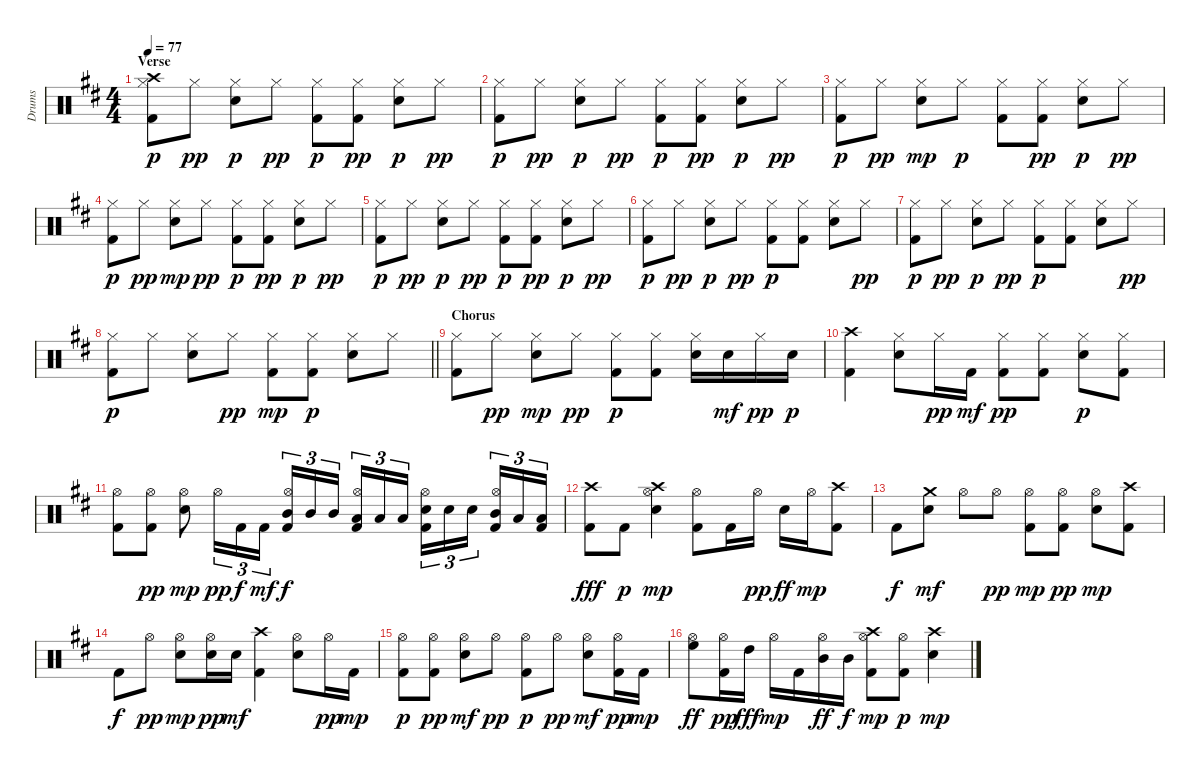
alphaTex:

\track ("Drums" "Drums") {instrument percussion}
\staff {score}
\articulation defaults
\ts (4 4)
\section ("" "Verse")
\tempo 77
\clef neutral
\ks d
("Kick (hit) 2" "Hi-Hat (closed)" "Crash high (hit)").8{dy p} "Hi-Hat (closed)".8{dy pp} ("Snare (hit) 2" "Hi-Hat (closed)").8{dy p} "Hi-Hat (closed)".8{dy pp} ("Kick (hit) 2" "Hi-Hat (closed)").8{dy p} ("Kick (hit) 2" "Hi-Hat (closed)").8{dy pp} ("Snare (hit) 2" "Hi-Hat (closed)").8{dy p} "Hi-Hat (closed)".8{dy pp} |
("Kick (hit) 2" "Hi-Hat (closed)").8{dy p} "Hi-Hat (closed)".8{dy pp} ("Snare (hit) 2" "Hi-Hat (closed)").8{dy p} "Hi-Hat (closed)".8{dy pp} ("Kick (hit) 2" "Hi-Hat (closed)").8{dy p} ("Kick (hit) 2" "Hi-Hat (closed)").8{dy pp} ("Snare (hit) 2" "Hi-Hat (closed)").8{dy p} "Hi-Hat (closed)".8{dy pp} |
("Kick (hit) 2" "Hi-Hat (closed)").8{dy p} "Hi-Hat (closed)".8{dy pp} ("Snare (hit) 2" "Hi-Hat (closed)").8{dy mp} "Hi-Hat (closed)".8{dy p} ("Kick (hit) 2" "Hi-Hat (closed)").8 ("Kick (hit) 2" "Hi-Hat (closed)").8{dy pp} ("Snare (hit) 2" "Hi-Hat (closed)").8{dy p} "Hi-Hat (closed)".8{dy pp} |
("Kick (hit) 2" "Hi-Hat (closed)").8{dy p} "Hi-Hat (closed)".8{dy pp} ("Snare (hit) 2" "Hi-Hat (closed)").8{dy mp} "Hi-Hat (closed)".8{dy pp} ("Kick (hit) 2" "Hi-Hat (closed)").8{dy p} ("Kick (hit) 2" "Hi-Hat (closed)").8{dy pp} ("Snare (hit) 2" "Hi-Hat (closed)").8{dy p} "Hi-Hat (closed)".8{dy pp} |
("Kick (hit) 2" "Hi-Hat (closed)").8{dy p} "Hi-Hat (closed)".8{dy pp} ("Snare (hit) 2" "Hi-Hat (closed)").8{dy p} "Hi-Hat (closed)".8{dy pp} ("Kick (hit) 2" "Hi-Hat (closed)").8{dy p} ("Kick (hit) 2" "Hi-Hat (closed)").8{dy pp} ("Snare (hit) 2" "Hi-Hat (closed)").8{dy p} "Hi-Hat (closed)".8{dy pp} |
("Kick (hit) 2" "Hi-Hat (closed)").8{dy p} "Hi-Hat (closed)".8{dy pp} ("Snare (hit) 2" "Hi-Hat (closed)").8{dy p} "Hi-Hat (closed)".8{dy pp} ("Kick (hit) 2" "Hi-Hat (closed)").8{dy p} ("Kick (hit) 2" "Hi-Hat (closed)").8 ("Snare (hit) 2" "Hi-Hat (closed)").8 "Hi-Hat (closed)".8{dy pp} |
("Kick (hit) 2" "Hi-Hat (closed)").8{dy p} "Hi-Hat (closed)".8{dy pp} ("Snare (hit) 2" "Hi-Hat (closed)").8{dy p} "Hi-Hat (closed)".8{dy pp} ("Kick (hit) 2" "Hi-Hat (closed)").8{dy p} ("Kick (hit) 2" "Hi-Hat (closed)").8 ("Snare (hit) 2" "Hi-Hat (closed)").8 "Hi-Hat (closed)".8{dy pp} |
\barLineRight lightlight
("Kick (hit) 2" "Hi-Hat (closed)").8{dy p} "Hi-Hat (closed)".8 ("Snare (hit) 2" "Hi-Hat (closed)").8 "Hi-Hat (closed)".8{dy pp} ("Kick (hit) 2" "Hi-Hat (closed)").8{dy mp} ("Kick (hit) 2" "Hi-Hat (closed)").8{dy p} ("Snare (hit) 2" "Hi-Hat (closed)").8 "Hi-Hat (closed)".8 |
\section ("" "Chorus")
("Kick (hit) 2" "Hi-Hat (closed)").8 "Hi-Hat (closed)".8{dy pp} ("Snare (hit) 2" "Hi-Hat (closed)").8{dy mp} "Hi-Hat (closed)".8{dy pp} ("Kick (hit) 2" "Hi-Hat (closed)").8{dy p} ("Kick (hit) 2" "Hi-Hat (closed)").8 ("Snare (hit) 2" "Hi-Hat (closed)").16 "Snare (hit) 2".16{dy mf} "Hi-Hat (closed)".16{dy pp} "Snare (hit) 2".16{dy p} |
("Kick (hit) 2" "Crash high (hit)").4 ("Snare (hit) 2" "Hi-Hat (closed)").8 "Hi-Hat (closed)".16{dy pp} "Kick (hit) 2".16{dy mf} ("Kick (hit) 2" "Hi-Hat (closed)").8{dy pp} ("Kick (hit) 2" "Hi-Hat (closed)").8 ("Snare (hit) 2" "Hi-Hat (closed)").8{dy p} ("Kick (hit) 2" "Hi-Hat (closed)").8 |
("Kick (hit) 2" "Hi-Hat (open)").8 ("Kick (hit) 2" "Hi-Hat (open)").8{dy pp} ("Snare (hit) 2" "Hi-Hat (open)").8{dy mp} "Hi-Hat (open)".16{tu (3 2) dy pp} "Kick (hit) 2".16{tu (3 2) dy f} "Kick (hit) 2".16{tu (3 2) dy mf} ("Mid Tom (hit)" "Hi-Hat (open)" "Kick (hit) 2").16{tu (3 2) dy f} "Mid Tom (hit)".16{tu (3 2)} "Mid Tom (hit)".16{tu (3 2) beam splitsecondary} ("Low Tom (hit)" "Hi-Hat (open)" "Kick (hit) 2").16{tu (3 2)} "Low Tom (hit)".16{tu (3 2)} "Low Tom (hit)".16{tu (3 2)} ("Snare (hit) 2" "Hi-Hat (open)" "Kick (hit) 2").16{tu (3 2)} "Snare (hit) 2".16{tu (3 2)} "Snare (hit) 2".16{tu (3 2) beam splitsecondary} ("Mid Tom (hit)" "Hi-Hat (open)" "Kick (hit) 2").16{tu (3 2)} "Low Tom (hit)".16{tu (3 2)} ("Low Floor Tom (hit)" "Kick (hit) 2").16{tu (3 2)} |
("Kick (hit) 2" "Crash high (hit)").8{dy fff} "Kick (hit) 2".8{dy p} ("Snare (hit) 2" "Hi-Hat (open)" "Crash high (hit)").4{dy mp} ("Kick (hit) 2" "Hi-Hat (open)").8 "Kick (hit) 2".16 "Hi-Hat (open)".16{dy pp} "Snare (hit) 2".16{dy ff} "Hi-Hat (open)".16{dy mp} ("Kick (hit) 2" "Crash high (hit)").8 |
"Kick (hit) 2".8{dy f} ("Snare (hit) 2" "Crash medium (hit)").8{dy mf} "Hi-Hat (open)".8 "Hi-Hat (open)".8{dy pp} ("Kick (hit) 2" "Hi-Hat (open)").8{dy mp} ("Kick (hit) 2" "Hi-Hat (open)").8{dy pp} ("Snare (hit) 2" "Hi-Hat (open)").8{dy mp} ("Kick (hit) 2" "Crash high (hit)").8 |
"Kick (hit) 2".8{dy f} "Hi-Hat (open)".8{dy pp} ("Snare (hit) 2" "Hi-Hat (open)").8{dy mp} ("Snare (hit) 2" "Hi-Hat (open)").16{dy pp} "Snare (hit) 2".16{dy mf} ("Kick (hit) 2" "Crash high (hit)").4 ("Snare (hit) 2" "Hi-Hat (open)").8 "Hi-Hat (open)".16{dy pp} "Kick (hit) 2".16{dy mp} |
("Kick (hit) 2" "Hi-Hat (open)").8{dy p} ("Kick (hit) 2" "Hi-Hat (open)").8{dy pp} ("Snare (hit) 2" "Hi-Hat (open)").8{dy mf} "Hi-Hat (open)".8{dy pp} ("Kick (hit) 2" "Hi-Hat (open)").8{dy p} "Hi-Hat (open)".8{dy pp} ("Snare (hit) 2" "Hi-Hat (open)").8{dy mf} ("Kick (hit) 2" "Hi-Hat (open)").16{dy pp} "Kick (hit) 2".16{dy mp} |
("Hi-Hat (open)" "High Floor Tom (hit)").8{dy ff} ("Kick (hit) 2" "Hi-Hat (open)").16{dy pp} "High Tom (hit)".16{dy fff} "Hi-Hat (open)".16{dy mp} "Kick (hit) 2".16 ("Hi-Hat (open)" "Mid Tom (hit)").16{dy ff} "Mid Tom (hit)".16{dy f} ("Kick (hit) 2" "Hi-Hat (open)" "Crash high (hit)").8{dy mp} ("Kick (hit) 2" "Hi-Hat (open)").8{dy p} ("Snare (hit) 2" "Crash high (hit)").4{dy mp}
